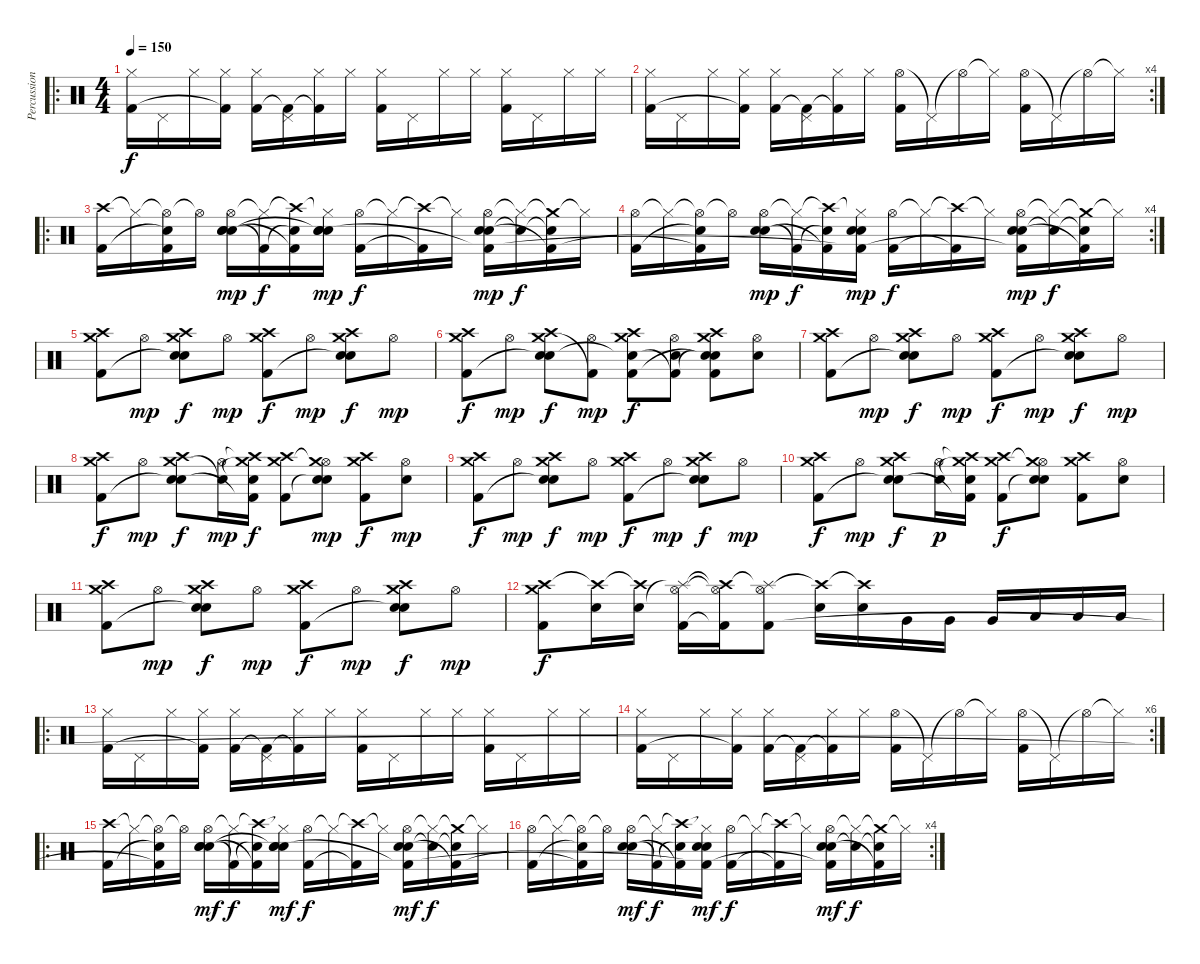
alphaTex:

\track ("Percussion" "Percussion") {instrument percussion}
\staff {score}
\articulation defaults
\ro
\ts (4 4)
\tempo 150
\clef neutral
\ks c
("Hi-Hat (closed)" "Kick (hit) 2").16{dy f} "Pedal Hi-Hat (hit)".16 "Hi-Hat (closed)".16 ("Hi-Hat (closed)" "Kick (hit) 2"{t}).16 ("Hi-Hat (closed)" "Kick (hit) 2").16 ("Pedal Hi-Hat (hit)" "Kick (hit) 2"{t}).16 ("Hi-Hat (closed)" "Kick (hit) 2"{t}).16 "Hi-Hat (closed)".16 ("Hi-Hat (closed)" "Kick (hit) 2").16 "Pedal Hi-Hat (hit)".16 "Hi-Hat (closed)".16 "Hi-Hat (closed)".16 ("Hi-Hat (closed)" "Kick (hit) 2").16 "Pedal Hi-Hat (hit)".16 "Hi-Hat (closed)".16 "Hi-Hat (closed)".16 |
\rc 4
("Hi-Hat (closed)" "Kick (hit) 2").16 "Pedal Hi-Hat (hit)".16 "Hi-Hat (closed)".16 ("Hi-Hat (closed)" "Kick (hit) 2"{t}).16 ("Hi-Hat (closed)" "Kick (hit) 2").16 ("Pedal Hi-Hat (hit)" "Kick (hit) 2"{t}).16 ("Hi-Hat (closed)" "Kick (hit) 2"{t}).16 "Hi-Hat (closed)".16 ("Hi-Hat (open)" "Kick (hit) 2").16 "Pedal Hi-Hat (hit)"{t}.16 "Hi-Hat (open)"{t}.16 "Hi-Hat (closed)"{t}.16 ("Hi-Hat (open)" "Kick (hit) 2").16 "Pedal Hi-Hat (hit)"{t}.16 "Hi-Hat (open)"{t}.16 "Hi-Hat (closed)"{t}.16 |
\ro
("Crash high (hit)" "Kick (hit) 2").16 "Hi-Hat (closed)"{t}.16 ("Hi-Hat (open)"{t} "Electric Snare (hit)"{t} "Kick (hit) 2"{t}).16 "Hi-Hat (open)"{t}.16 ("Hi-Hat (open)" "Electric Snare (hit)" "Hand Clap (hit)" "Electric Snare (hit)").16{dy mp} ("Hi-Hat (closed)"{t} "Kick (hit) 2"{t}).16{dy f} ("Crash high (hit)"{t} "Electric Snare (hit)"{t} "Kick (hit) 2"{t}).16 ("Hi-Hat (closed)"{t} "Electric Snare (hit)" "Hand Clap (hit)" "Electric Snare (hit)"{t}).16{dy mp} ("Hi-Hat (open)" "Kick (hit) 2").16{dy f} "Hi-Hat (closed)"{t}.16 ("Crash high (hit)"{t} "Kick (hit) 2"{t}).16 "Hi-Hat (closed)"{t}.16 ("Hi-Hat (open)" "Electric Snare (hit)" "Hand Clap (hit)" "Kick (hit) 2"{t}).16{dy mp} ("Hi-Hat (closed)"{t} "Electric Snare (hit)"{t}).16{dy f} ("Crash medium (hit)"{t} "Electric Snare (hit)"{t} "Kick (hit) 2"{t}).16 "Hi-Hat (closed)"{t}.16 |
\rc 4
("Hi-Hat (open)" "Kick (hit) 2").16 "Hi-Hat (closed)"{t}.16 ("Hi-Hat (open)"{t} "Electric Snare (hit)"{t} "Kick (hit) 2"{t}).16 "Hi-Hat (open)"{t}.16 ("Hi-Hat (open)" "Electric Snare (hit)" "Hand Clap (hit)").16{dy mp} ("Hi-Hat (closed)"{t} "Kick (hit) 2"{t}).16{dy f} ("Crash high (hit)"{t} "Electric Snare (hit)"{t} "Kick (hit) 2"{t}).16 ("Hi-Hat (closed)"{t} "Electric Snare (hit)" "Hand Clap (hit)" "Kick (hit) 2"{t}).16{dy mp} ("Hi-Hat (open)" "Kick (hit) 2").16{dy f} "Hi-Hat (closed)"{t}.16 ("Crash high (hit)"{t} "Kick (hit) 2"{t}).16 "Hi-Hat (closed)"{t}.16 ("Hi-Hat (open)" "Electric Snare (hit)" "Hand Clap (hit)" "Kick (hit) 2"{t}).16{dy mp} ("Hi-Hat (closed)"{t} "Electric Snare (hit)"{t}).16{dy f} ("Crash medium (hit)"{t} "Electric Snare (hit)"{t} "Kick (hit) 2"{t}).16 "Hi-Hat (closed)"{t}.16 |
("Crash high (hit)" "Crash medium (hit)" "Kick (hit) 2").8 "Hi-Hat (open)".8{dy mp} ("Crash high (hit)" "Crash medium (hit)" "Snare (hit) 2"{t} "Electric Snare (hit)").8{dy f} "Hi-Hat (open)".8{dy mp} ("Crash high (hit)" "Crash medium (hit)" "Kick (hit) 2").8{dy f} "Hi-Hat (open)".8{dy mp} ("Crash high (hit)" "Crash medium (hit)" "Snare (hit) 2"{t} "Electric Snare (hit)").8{dy f} "Hi-Hat (open)".8{dy mp} |
("Crash high (hit)" "Crash medium (hit)" "Kick (hit) 2").8{dy f} "Hi-Hat (open)".8{dy mp} ("Crash high (hit)" "Crash medium (hit)" "Snare (hit) 2"{t} "Electric Snare (hit)").8{dy f} ("Hi-Hat (open)" "Kick (hit) 2"{t}).8{dy mp} ("Crash high (hit)" "Crash medium (hit)" "Electric Snare (hit)"{t} "Kick (hit) 2").8{dy f} ("Hi-Hat (open)" "Electric Snare (hit)" "Kick (hit) 2"{t}).8 ("Crash high (hit)" "Crash medium (hit)" "Snare (hit) 2"{t} "Electric Snare (hit)"{t} "Kick (hit) 2").8 ("Hi-Hat (open)" "Electric Snare (hit)").8 |
("Crash high (hit)" "Crash medium (hit)" "Kick (hit) 2").8 "Hi-Hat (open)".8{dy mp} ("Crash high (hit)" "Crash medium (hit)" "Snare (hit) 2"{t} "Electric Snare (hit)").8{dy f} "Hi-Hat (open)".8{dy mp} ("Crash high (hit)" "Crash medium (hit)" "Kick (hit) 2").8{dy f} "Hi-Hat (open)".8{dy mp} ("Crash high (hit)" "Crash medium (hit)" "Snare (hit) 2"{t} "Electric Snare (hit)").8{dy f} "Hi-Hat (open)".8{dy mp} |
("Crash high (hit)" "Crash medium (hit)" "Kick (hit) 2").8{dy f} "Hi-Hat (open)".8{dy mp} ("Crash high (hit)" "Crash medium (hit)" "Snare (hit) 2"{t} "Electric Snare (hit)").8{dy f} ("Hi-Hat (open)" "Electric Snare (hit)"{t}).16{dy mp} ("Crash high (hit)"{t} "Crash medium (hit)"{t} "Electric Snare (hit)" "Kick (hit) 2"{t}).16{dy f} ("Crash high (hit)" "Crash medium (hit)" "Kick (hit) 2").8 ("Hi-Hat (open)" "Crash medium (hit)"{t} "Snare (hit) 2"{t} "Electric Snare (hit)").8{dy mp} ("Crash high (hit)" "Crash medium (hit)" "Kick (hit) 2").8{dy f} ("Hi-Hat (open)" "Electric Snare (hit)").8{dy mp} |
("Crash high (hit)" "Crash medium (hit)" "Kick (hit) 2").8{dy f} "Hi-Hat (open)".8{dy mp} ("Crash high (hit)" "Crash medium (hit)" "Snare (hit) 2"{t} "Electric Snare (hit)").8{dy f} "Hi-Hat (open)".8{dy mp} ("Crash high (hit)" "Crash medium (hit)" "Kick (hit) 2").8{dy f} "Hi-Hat (open)".8{dy mp} ("Crash high (hit)" "Crash medium (hit)" "Snare (hit) 2"{t} "Electric Snare (hit)").8{dy f} "Hi-Hat (open)".8{dy mp} |
("Crash high (hit)" "Crash medium (hit)" "Kick (hit) 2").8{dy f} "Hi-Hat (open)".8{dy mp} ("Crash high (hit)" "Crash medium (hit)" "Snare (hit) 2"{t} "Electric Snare (hit)").8{dy f} ("Hi-Hat (open)" "Electric Snare (hit)").16{dy p} ("Crash high (hit)"{t} "Crash medium (hit)"{t} "Electric Snare (hit)" "Kick (hit) 2"{t}).16 ("Crash high (hit)" "Crash medium (hit)" "Kick (hit) 2").8{dy f} ("Hi-Hat (open)" "Crash medium (hit)"{t} "Snare (hit) 2"{t} "Electric Snare (hit)").8 ("Crash high (hit)" "Crash medium (hit)" "Kick (hit) 2").8 ("Hi-Hat (open)" "Electric Snare (hit)").8 |
("Crash high (hit)" "Crash medium (hit)" "Kick (hit) 2").8 "Hi-Hat (open)".8{dy mp} ("Crash high (hit)" "Crash medium (hit)" "Snare (hit) 2"{t} "Electric Snare (hit)").8{dy f} "Hi-Hat (open)".8{dy mp} ("Crash high (hit)" "Crash medium (hit)" "Kick (hit) 2").8{dy f} "Hi-Hat (open)".8{dy mp} ("Crash high (hit)" "Crash medium (hit)" "Snare (hit) 2"{t} "Electric Snare (hit)").8{dy f} "Hi-Hat (open)".8{dy mp} |
("Crash high (hit)" "Crash medium (hit)" "Kick (hit) 2").8{dy f} ("Crash high (hit)"{t} "Electric Snare (hit)").16 ("Crash high (hit)"{t} "Electric Snare (hit)").16 ("Hi-Hat (open)" "Splash (hit)"{t} "Kick (hit) 2").16 ("Hi-Hat (open)"{t} "Crash high (hit)"{t} "Kick (hit) 2"{t}).16 ("Hi-Hat (open)" "Splash (hit)"{t} "Kick (hit) 2").8 ("Crash high (hit)"{t} "Electric Snare (hit)").16 ("Crash high (hit)"{t} "Electric Snare (hit)").16 "Very Low Tom (hit)".16 "Very Low Tom (hit)".16 "Very Low Tom (hit)".16 "Low Floor Tom (hit)".16 "Low Floor Tom (hit)".16 "Low Floor Tom (hit)".16 |
\ro
("Hi-Hat (closed)" "Kick (hit) 2").16 "Pedal Hi-Hat (hit)".16 "Hi-Hat (closed)".16 ("Hi-Hat (closed)" "Kick (hit) 2"{t}).16 ("Hi-Hat (closed)" "Kick (hit) 2").16 ("Pedal Hi-Hat (hit)" "Kick (hit) 2"{t}).16 ("Hi-Hat (closed)" "Kick (hit) 2"{t}).16 "Hi-Hat (closed)".16 ("Hi-Hat (closed)" "Kick (hit) 2").16 "Pedal Hi-Hat (hit)".16 "Hi-Hat (closed)".16 "Hi-Hat (closed)".16 ("Hi-Hat (closed)" "Kick (hit) 2").16 "Pedal Hi-Hat (hit)".16 "Hi-Hat (closed)".16 "Hi-Hat (closed)".16 |
\rc 6
("Hi-Hat (closed)" "Kick (hit) 2").16 "Pedal Hi-Hat (hit)".16 "Hi-Hat (closed)".16 ("Hi-Hat (closed)" "Kick (hit) 2"{t}).16 ("Hi-Hat (closed)" "Kick (hit) 2").16 ("Pedal Hi-Hat (hit)" "Kick (hit) 2"{t}).16 ("Hi-Hat (closed)" "Kick (hit) 2"{t}).16 "Hi-Hat (closed)".16 ("Hi-Hat (open)" "Kick (hit) 2").16 "Pedal Hi-Hat (hit)"{t}.16 "Hi-Hat (open)"{t}.16 "Hi-Hat (closed)"{t}.16 ("Hi-Hat (open)" "Kick (hit) 2").16 "Pedal Hi-Hat (hit)"{t}.16 "Hi-Hat (open)"{t}.16 "Hi-Hat (closed)"{t}.16 |
\ro
("Crash high (hit)" "Kick (hit) 2").16 "Hi-Hat (closed)"{t}.16 ("Hi-Hat (open)"{t} "Electric Snare (hit)"{t} "Kick (hit) 2"{t}).16 "Hi-Hat (open)"{t}.16 ("Hi-Hat (open)" "Electric Snare (hit)" "Hand Clap (hit)" "Electric Snare (hit)").16{dy mf} ("Hi-Hat (closed)"{t} "Kick (hit) 2"{t}).16{dy f} ("Crash high (hit)"{t} "Electric Snare (hit)"{t} "Kick (hit) 2"{t}).16 ("Hi-Hat (closed)"{t} "Electric Snare (hit)" "Hand Clap (hit)" "Electric Snare (hit)"{t}).16{dy mf} ("Hi-Hat (open)" "Kick (hit) 2").16{dy f} "Hi-Hat (closed)"{t}.16 ("Crash high (hit)"{t} "Kick (hit) 2"{t}).16 "Hi-Hat (closed)"{t}.16 ("Hi-Hat (open)" "Electric Snare (hit)" "Hand Clap (hit)" "Kick (hit) 2"{t}).16{dy mf} ("Hi-Hat (closed)"{t} "Electric Snare (hit)"{t}).16{dy f} ("Crash medium (hit)"{t} "Electric Snare (hit)"{t} "Kick (hit) 2"{t}).16 "Hi-Hat (closed)"{t}.16 |
\rc 4
("Hi-Hat (open)" "Kick (hit) 2").16 "Hi-Hat (closed)"{t}.16 ("Hi-Hat (open)"{t} "Electric Snare (hit)"{t} "Kick (hit) 2"{t}).16 "Hi-Hat (open)"{t}.16 ("Hi-Hat (open)" "Electric Snare (hit)" "Hand Clap (hit)").16{dy mf} ("Hi-Hat (closed)"{t} "Kick (hit) 2"{t}).16{dy f} ("Crash high (hit)"{t} "Electric Snare (hit)"{t} "Kick (hit) 2"{t}).16 ("Hi-Hat (closed)"{t} "Electric Snare (hit)" "Hand Clap (hit)" "Kick (hit) 2"{t}).16{dy mf} ("Hi-Hat (open)" "Kick (hit) 2").16{dy f} "Hi-Hat (closed)"{t}.16 ("Crash high (hit)"{t} "Kick (hit) 2"{t}).16 "Hi-Hat (closed)"{t}.16 ("Hi-Hat (open)" "Electric Snare (hit)" "Hand Clap (hit)" "Kick (hit) 2"{t}).16{dy mf} ("Hi-Hat (closed)"{t} "Electric Snare (hit)"{t}).16{dy f} ("Crash medium (hit)"{t} "Electric Snare (hit)"{t} "Kick (hit) 2"{t}).16 "Hi-Hat (closed)"{t}.16
